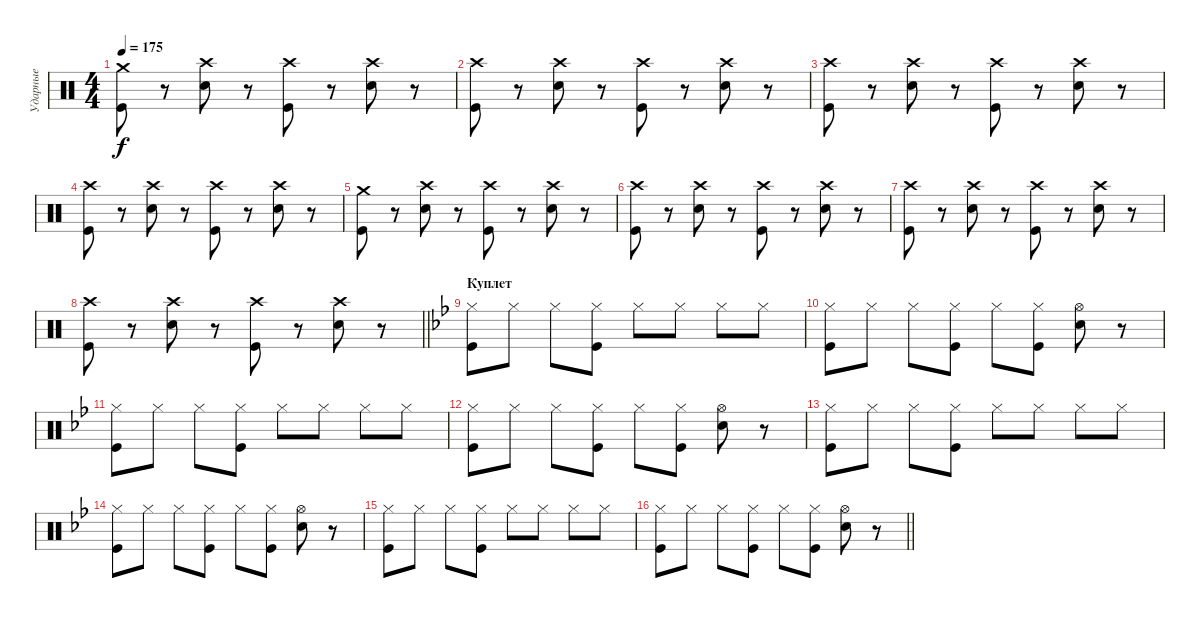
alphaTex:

\track ("Ударные" "Ударные") {instrument percussion}
\staff {score}
\articulation defaults
\ts (4 4)
\tempo 175
\clef neutral
\ks c
("Crash medium (hit)" "Kick (hit)").8{dy f} r.8 ("Crash high (hit)" "Electric Snare (hit)").8 r.8 ("Crash high (hit)" "Kick (hit)").8 r.8 ("Crash high (hit)" "Electric Snare (hit)").8 r.8 |
("Crash high (hit)" "Kick (hit)").8 r.8 ("Crash high (hit)" "Electric Snare (hit)").8 r.8 ("Crash high (hit)" "Kick (hit)").8 r.8 ("Crash high (hit)" "Electric Snare (hit)").8 r.8 |
("Crash high (hit)" "Kick (hit)").8 r.8 ("Crash high (hit)" "Electric Snare (hit)").8 r.8 ("Crash high (hit)" "Kick (hit)").8 r.8 ("Crash high (hit)" "Electric Snare (hit)").8 r.8 |
("Crash high (hit)" "Kick (hit)").8 r.8 ("Crash high (hit)" "Electric Snare (hit)").8 r.8 ("Crash high (hit)" "Kick (hit)").8 r.8 ("Crash high (hit)" "Electric Snare (hit)").8 r.8 |
("Crash medium (hit)" "Kick (hit)").8 r.8 ("Crash high (hit)" "Electric Snare (hit)").8 r.8 ("Crash high (hit)" "Kick (hit)").8 r.8 ("Crash high (hit)" "Electric Snare (hit)").8 r.8 |
("Crash high (hit)" "Kick (hit)").8 r.8 ("Crash high (hit)" "Electric Snare (hit)").8 r.8 ("Crash high (hit)" "Kick (hit)").8 r.8 ("Crash high (hit)" "Electric Snare (hit)").8 r.8 |
("Crash high (hit)" "Kick (hit)").8 r.8 ("Crash high (hit)" "Electric Snare (hit)").8 r.8 ("Crash high (hit)" "Kick (hit)").8 r.8 ("Crash high (hit)" "Electric Snare (hit)").8 r.8 |
\barLineRight lightlight
("Crash high (hit)" "Kick (hit)").8 r.8 ("Crash high (hit)" "Electric Snare (hit)").8 r.8 ("Crash high (hit)" "Kick (hit)").8 r.8 ("Crash high (hit)" "Electric Snare (hit)").8 r.8 |
\section ("" "Куплет")
\ks bb
("Hi-Hat (closed)" "Kick (hit)").8 "Hi-Hat (closed)".8 "Hi-Hat (closed)".8 ("Hi-Hat (closed)" "Kick (hit)").8 "Hi-Hat (closed)".8 "Hi-Hat (closed)".8 "Hi-Hat (closed)".8 "Hi-Hat (closed)".8 |
("Hi-Hat (closed)" "Kick (hit)").8 "Hi-Hat (closed)".8 "Hi-Hat (closed)".8 ("Hi-Hat (closed)" "Kick (hit)").8 "Hi-Hat (closed)".8 ("Hi-Hat (closed)" "Kick (hit)").8 ("Hi-Hat (open)" "Electric Snare (hit)").8 r.8 |
("Hi-Hat (closed)" "Kick (hit)").8 "Hi-Hat (closed)".8 "Hi-Hat (closed)".8 ("Hi-Hat (closed)" "Kick (hit)").8 "Hi-Hat (closed)".8 "Hi-Hat (closed)".8 "Hi-Hat (closed)".8 "Hi-Hat (closed)".8 |
("Hi-Hat (closed)" "Kick (hit)").8 "Hi-Hat (closed)".8 "Hi-Hat (closed)".8 ("Hi-Hat (closed)" "Kick (hit)").8 "Hi-Hat (closed)".8 ("Hi-Hat (closed)" "Kick (hit)").8 ("Hi-Hat (open)" "Electric Snare (hit)").8 r.8 |
("Hi-Hat (closed)" "Kick (hit)").8 "Hi-Hat (closed)".8 "Hi-Hat (closed)".8 ("Hi-Hat (closed)" "Kick (hit)").8 "Hi-Hat (closed)".8 "Hi-Hat (closed)".8 "Hi-Hat (closed)".8 "Hi-Hat (closed)".8 |
("Hi-Hat (closed)" "Kick (hit)").8 "Hi-Hat (closed)".8 "Hi-Hat (closed)".8 ("Hi-Hat (closed)" "Kick (hit)").8 "Hi-Hat (closed)".8 ("Hi-Hat (closed)" "Kick (hit)").8 ("Hi-Hat (open)" "Electric Snare (hit)").8 r.8 |
("Hi-Hat (closed)" "Kick (hit)").8 "Hi-Hat (closed)".8 "Hi-Hat (closed)".8 ("Hi-Hat (closed)" "Kick (hit)").8 "Hi-Hat (closed)".8 "Hi-Hat (closed)".8 "Hi-Hat (closed)".8 "Hi-Hat (closed)".8 |
\barLineRight lightlight
("Hi-Hat (closed)" "Kick (hit)").8 "Hi-Hat (closed)".8 "Hi-Hat (closed)".8 ("Hi-Hat (closed)" "Kick (hit)").8 "Hi-Hat (closed)".8 ("Hi-Hat (closed)" "Kick (hit)").8 ("Hi-Hat (open)" "Electric Snare (hit)").8 r.8
